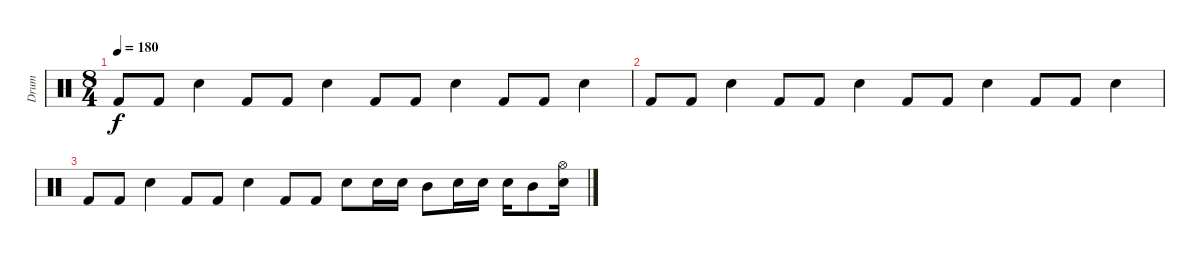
\track ("Drum" "Drum") {instrument percussion}
\staff {score}
\articulation defaults
\ts (8 4)
\tempo 180
\clef neutral
\ks c "Kick (hit) 2".8{dy f} "Kick (hit) 2".8 "Electric Snare (hit)".4 "Kick (hit) 2".8 "Kick (hit) 2".8 "Electric Snare (hit)".4 "Kick (hit) 2".8 "Kick (hit) 2".8 "Electric Snare (hit)".4 "Kick (hit) 2".8 "Kick (hit) 2".8 "Electric Snare (hit)".4
|
"Kick (hit) 2".8 "Kick (hit) 2".8 "Electric Snare (hit)".4 "Kick (hit) 2".8 "Kick (hit) 2".8 "Electric Snare (hit)".4 "Kick (hit) 2".8 "Kick (hit) 2".8 "Electric Snare (hit)".4 "Kick (hit) 2".8 "Kick (hit) 2".8 "Electric Snare (hit)".4 |
"Kick (hit) 2".8 "Kick (hit) 2".8 "Electric Snare (hit)".4 "Kick (hit) 2".8 "Kick (hit) 2".8 "Electric Snare (hit)".4 "Kick (hit) 2".8 "Kick (hit) 2".8 "Electric Snare (hit)".8 "Electric Snare (hit)".16 "Electric Snare (hit)".16 "Mid Tom (hit)".8 "Electric Snare (hit)".16 "Electric Snare (hit)".16 "Electric Snare (hit)".16 "Mid Tom (hit)".8 ("Electric Snare (hit)" "Hi-Hat (open)").16
